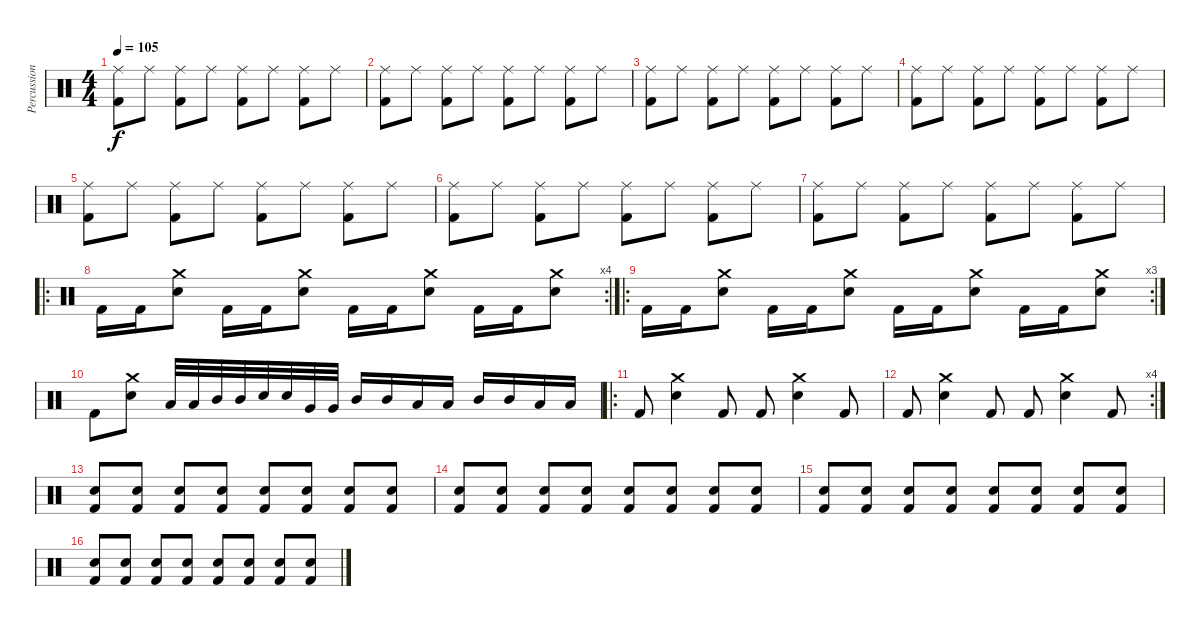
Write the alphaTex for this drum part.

\track ("Percussion" "Percussion") {instrument percussion}
\staff {score}
\articulation defaults
\ts (4 4)
\tempo 105
\clef neutral
\ks c
("Ride (middle)" "Kick (hit) 2").8{dy f} "Ride (middle)".8 ("Ride (middle)" "Kick (hit) 2").8 "Ride (middle)".8 ("Ride (middle)" "Kick (hit) 2").8 "Ride (middle)".8 ("Ride (middle)" "Kick (hit) 2").8 "Ride (middle)".8 |
("Ride (middle)" "Kick (hit) 2").8 "Ride (middle)".8 ("Ride (middle)" "Kick (hit) 2").8 "Ride (middle)".8 ("Ride (middle)" "Kick (hit) 2").8 "Ride (middle)".8 ("Ride (middle)" "Kick (hit) 2").8 "Ride (middle)".8 |
("Ride (middle)" "Kick (hit) 2").8 "Ride (middle)".8 ("Ride (middle)" "Kick (hit) 2").8 "Ride (middle)".8 ("Ride (middle)" "Kick (hit) 2").8 "Ride (middle)".8 ("Ride (middle)" "Kick (hit) 2").8 "Ride (middle)".8 |
("Ride (middle)" "Kick (hit) 2").8 "Ride (middle)".8 ("Ride (middle)" "Kick (hit) 2").8 "Ride (middle)".8 ("Ride (middle)" "Kick (hit) 2").8 "Ride (middle)".8 ("Ride (middle)" "Kick (hit) 2").8 "Ride (middle)".8 |
("Ride (middle)" "Kick (hit) 2").8 "Ride (middle)".8 ("Ride (middle)" "Kick (hit) 2").8 "Ride (middle)".8 ("Ride (middle)" "Kick (hit) 2").8 "Ride (middle)".8 ("Ride (middle)" "Kick (hit) 2").8 "Ride (middle)".8 |
("Ride (middle)" "Kick (hit) 2").8 "Ride (middle)".8 ("Ride (middle)" "Kick (hit) 2").8 "Ride (middle)".8 ("Ride (middle)" "Kick (hit) 2").8 "Ride (middle)".8 ("Ride (middle)" "Kick (hit) 2").8 "Ride (middle)".8 |
("Ride (middle)" "Kick (hit) 2").8 "Ride (middle)".8 ("Ride (middle)" "Kick (hit) 2").8 "Ride (middle)".8 ("Ride (middle)" "Kick (hit) 2").8 "Ride (middle)".8 ("Ride (middle)" "Kick (hit) 2").8 "Ride (middle)".8 |
\ro
\rc 4 "Kick (hit) 2".16 "Kick (hit) 2".16
("Crash medium (hit)" "Electric Snare (hit)").8 "Kick (hit) 2".16 "Kick (hit) 2".16 ("Crash medium (hit)" "Electric Snare (hit)").8 "Kick (hit) 2".16 "Kick (hit) 2".16 ("Crash medium (hit)" "Electric Snare (hit)").8 "Kick (hit) 2".16 "Kick (hit) 2".16 ("Crash medium (hit)" "Electric Snare (hit)").8 |
\ro
\rc 3 "Kick (hit) 2".16 "Kick (hit) 2".16
("Crash medium (hit)" "Electric Snare (hit)").8 "Kick (hit) 2".16 "Kick (hit) 2".16 ("Crash medium (hit)" "Electric Snare (hit)").8 "Kick (hit) 2".16 "Kick (hit) 2".16 ("Crash medium (hit)" "Electric Snare (hit)").8 "Kick (hit) 2".16 "Kick (hit) 2".16 ("Crash medium (hit)" "Electric Snare (hit)").8 |
"Kick (hit) 2".8 ("Crash medium (hit)" "Electric Snare (hit)").8 "Low Tom (hit)".32 "Low Tom (hit)".32 "Mid Tom (hit)".32 "Mid Tom (hit)".32 "Electric Snare (hit)".32 "Electric Snare (hit)".32 "Very Low Tom (hit)".32 "Very Low Tom (hit)".32 "Mid Tom (hit)".16 "Mid Tom (hit)".16 "Low Tom (hit)".16 "Low Tom (hit)".16 "Mid Tom (hit)".16 "Mid Tom (hit)".16 "Low Tom (hit)".16 "Low Tom (hit)".16 |
\ro "Kick (hit) 2".8
("Crash medium (hit)" "Electric Snare (hit)").4 "Kick (hit) 2".8 "Kick (hit) 2".8 ("Crash medium (hit)" "Electric Snare (hit)").4 "Kick (hit) 2".8 |
\rc 4 "Kick (hit) 2".8
("Crash medium (hit)" "Electric Snare (hit)").4 "Kick (hit) 2".8 "Kick (hit) 2".8 ("Crash medium (hit)" "Electric Snare (hit)").4 "Kick (hit) 2".8 |
("Electric Snare (hit)" "Kick (hit) 2").8 ("Electric Snare (hit)" "Kick (hit) 2").8 ("Electric Snare (hit)" "Kick (hit) 2").8 ("Electric Snare (hit)" "Kick (hit) 2").8 ("Electric Snare (hit)" "Kick (hit) 2").8 ("Electric Snare (hit)" "Kick (hit) 2").8 ("Electric Snare (hit)" "Kick (hit) 2").8 ("Electric Snare (hit)" "Kick (hit) 2").8 |
("Electric Snare (hit)" "Kick (hit) 2").8 ("Electric Snare (hit)" "Kick (hit) 2").8 ("Electric Snare (hit)" "Kick (hit) 2").8 ("Electric Snare (hit)" "Kick (hit) 2").8 ("Electric Snare (hit)" "Kick (hit) 2").8 ("Electric Snare (hit)" "Kick (hit) 2").8 ("Electric Snare (hit)" "Kick (hit) 2").8 ("Electric Snare (hit)" "Kick (hit) 2").8 |
("Electric Snare (hit)" "Kick (hit) 2").8 ("Electric Snare (hit)" "Kick (hit) 2").8 ("Electric Snare (hit)" "Kick (hit) 2").8 ("Electric Snare (hit)" "Kick (hit) 2").8 ("Electric Snare (hit)" "Kick (hit) 2").8 ("Electric Snare (hit)" "Kick (hit) 2").8 ("Electric Snare (hit)" "Kick (hit) 2").8 ("Electric Snare (hit)" "Kick (hit) 2").8 |
("Electric Snare (hit)" "Kick (hit) 2").8 ("Electric Snare (hit)" "Kick (hit) 2").8 ("Electric Snare (hit)" "Kick (hit) 2").8 ("Electric Snare (hit)" "Kick (hit) 2").8 ("Electric Snare (hit)" "Kick (hit) 2").8 ("Electric Snare (hit)" "Kick (hit) 2").8 ("Electric Snare (hit)" "Kick (hit) 2").8 ("Electric Snare (hit)" "Kick (hit) 2").8
